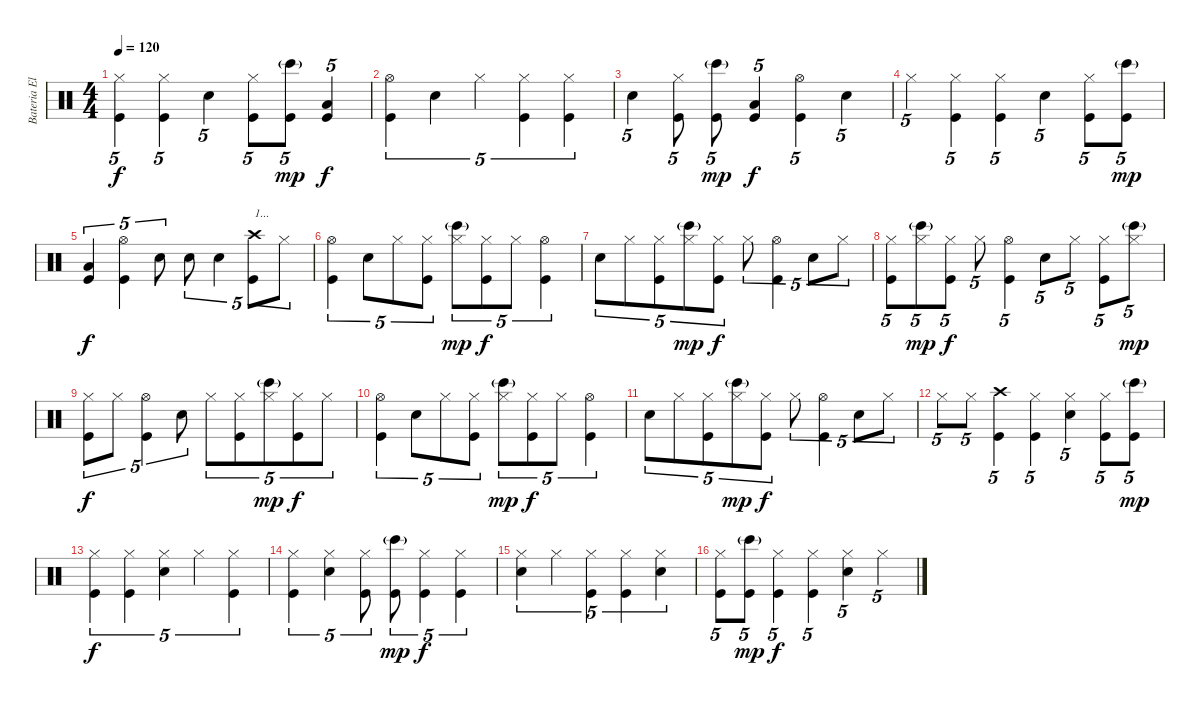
\track ("Bateria Eletrônica" "Bateria El") {instrument percussion}
\staff {score}
\articulation defaults
\ts (4 4)
\tempo 120
\clef neutral
\ks c
("Kick (hit)" "Hi-Hat (closed)").4{tu (5 4) dy f} ("Kick (hit)" "Hi-Hat (closed)").4{tu (5 4)} "Snare (hit) 2".4{tu (5 4)} ("Kick (hit)" "Hi-Hat (closed)").8{tu (5 4)} ("Kick (hit)" "Bongo High (hit)"{g}).8{tu (5 4) dy mp} ("Kick (hit)" "Low Tom (hit)").4{tu (5 4) dy f} |
("Kick (hit)" "Hi-Hat (open)").4{tu (5 4)} "Snare (hit) 2".4{tu (5 4)} "Hi-Hat (closed)".4{tu (5 4)} ("Kick (hit)" "Hi-Hat (closed)").4{tu (5 4)} ("Kick (hit)" "Hi-Hat (closed)").4{tu (5 4)} |
"Snare (hit) 2".4{tu (5 4)} ("Kick (hit)" "Hi-Hat (closed)").8{tu (5 4)} ("Kick (hit)" "Bongo High (hit)"{g}).8{tu (5 4) dy mp} ("Kick (hit)" "Low Tom (hit)").4{tu (5 4) dy f} ("Kick (hit)" "Hi-Hat (open)").4{tu (5 4)} "Snare (hit) 2".4{tu (5 4)} |
"Hi-Hat (closed)".4{tu (5 4)} ("Kick (hit)" "Hi-Hat (closed)").4{tu (5 4)} ("Kick (hit)" "Hi-Hat (closed)").4{tu (5 4)} "Snare (hit) 2".4{tu (5 4)} ("Kick (hit)" "Hi-Hat (closed)").8{tu (5 4)} ("Kick (hit)" "Bongo High (hit)"{g}).8{tu (5 4) dy mp} |
("Kick (hit)" "Low Tom (hit)").4{tu (5 4) dy f} ("Kick (hit)" "Hi-Hat (open)").4{tu (5 4)} "Snare (hit) 2".8{tu (5 4)} "Snare (hit) 2".8{tu (5 4)} "Snare (hit) 2".4{tu (5 4)} ("Kick (hit)" "Crash high (hit)").8{tu (5 4) txt "1..."} "Hi-Hat (closed)".8{tu (5 4)} |
("Kick (hit)" "Hi-Hat (open)").4{tu (5 4)} "Snare (hit) 2".8{tu (5 4)} "Hi-Hat (closed)".8{tu (5 4)} ("Kick (hit)" "Hi-Hat (closed)").8{tu (5 4)} ("Bongo High (hit)"{g} "Hi-Hat (closed)").8{tu (5 4) dy mp} ("Kick (hit)" "Hi-Hat (closed)").8{tu (5 4) dy f} "Hi-Hat (closed)".8{tu (5 4)} ("Kick (hit)" "Hi-Hat (open)").4{tu (5 4)} |
"Snare (hit) 2".8{tu (5 4)} "Hi-Hat (closed)".8{tu (5 4)} ("Kick (hit)" "Hi-Hat (closed)").8{tu (5 4)} ("Bongo High (hit)"{g} "Hi-Hat (closed)").8{tu (5 4) dy mp} ("Kick (hit)" "Hi-Hat (closed)").8{tu (5 4) dy f} "Hi-Hat (closed)".8{tu (5 4)} ("Kick (hit)" "Hi-Hat (open)").4{tu (5 4)} "Snare (hit) 2".8{tu (5 4)} "Hi-Hat (closed)".8{tu (5 4)} |
("Kick (hit)" "Hi-Hat (closed)").8{tu (5 4)} ("Bongo High (hit)"{g} "Hi-Hat (closed)").8{tu (5 4) dy mp} ("Kick (hit)" "Hi-Hat (closed)").8{tu (5 4) dy f} "Hi-Hat (closed)".8{tu (5 4)} ("Kick (hit)" "Hi-Hat (open)").4{tu (5 4)} "Snare (hit) 2".8{tu (5 4)} "Hi-Hat (closed)".8{tu (5 4)} ("Kick (hit)" "Hi-Hat (closed)").8{tu (5 4)} ("Bongo High (hit)"{g} "Hi-Hat (closed)").8{tu (5 4) dy mp} |
("Kick (hit)" "Hi-Hat (closed)").8{tu (5 4) dy f} "Hi-Hat (closed)".8{tu (5 4)} ("Kick (hit)" "Hi-Hat (open)").4{tu (5 4)} "Snare (hit) 2".8{tu (5 4)} "Hi-Hat (closed)".8{tu (5 4)} ("Kick (hit)" "Hi-Hat (closed)").8{tu (5 4)} ("Bongo High (hit)"{g} "Hi-Hat (closed)").8{tu (5 4) dy mp} ("Kick (hit)" "Hi-Hat (closed)").8{tu (5 4) dy f} "Hi-Hat (closed)".8{tu (5 4)} |
("Kick (hit)" "Hi-Hat (open)").4{tu (5 4)} "Snare (hit) 2".8{tu (5 4)} "Hi-Hat (closed)".8{tu (5 4)} ("Kick (hit)" "Hi-Hat (closed)").8{tu (5 4)} ("Bongo High (hit)"{g} "Hi-Hat (closed)").8{tu (5 4) dy mp} ("Kick (hit)" "Hi-Hat (closed)").8{tu (5 4) dy f} "Hi-Hat (closed)".8{tu (5 4)} ("Kick (hit)" "Hi-Hat (open)").4{tu (5 4)} |
"Snare (hit) 2".8{tu (5 4)} "Hi-Hat (closed)".8{tu (5 4)} ("Kick (hit)" "Hi-Hat (closed)").8{tu (5 4)} ("Bongo High (hit)"{g} "Hi-Hat (closed)").8{tu (5 4) dy mp} ("Kick (hit)" "Hi-Hat (closed)").8{tu (5 4) dy f} "Hi-Hat (closed)".8{tu (5 4)} ("Kick (hit)" "Hi-Hat (open)").4{tu (5 4)} "Snare (hit) 2".8{tu (5 4)} "Hi-Hat (closed)".8{tu (5 4)} |
"Hi-Hat (closed)".8{tu (5 4)} "Hi-Hat (closed)".8{tu (5 4)} ("Kick (hit)" "Crash high (hit)").4{tu (5 4)} ("Kick (hit)" "Hi-Hat (closed)").4{tu (5 4)} ("Snare (hit) 2" "Hi-Hat (closed)").4{tu (5 4)} ("Kick (hit)" "Hi-Hat (closed)").8{tu (5 4)} ("Kick (hit)" "Bongo High (hit)"{g}).8{tu (5 4) dy mp} |
("Kick (hit)" "Hi-Hat (closed)").4{tu (5 4) dy f} ("Kick (hit)" "Hi-Hat (closed)").4{tu (5 4)} ("Snare (hit) 2" "Hi-Hat (closed)").4{tu (5 4)} "Hi-Hat (closed)".4{tu (5 4)} ("Kick (hit)" "Hi-Hat (closed)").4{tu (5 4)} |
("Kick (hit)" "Hi-Hat (closed)").4{tu (5 4)} ("Snare (hit) 2" "Hi-Hat (closed)").4{tu (5 4)} ("Kick (hit)" "Hi-Hat (closed)").8{tu (5 4)} ("Kick (hit)" "Bongo High (hit)"{g}).8{tu (5 4) dy mp} ("Kick (hit)" "Hi-Hat (closed)").4{tu (5 4) dy f} ("Kick (hit)" "Hi-Hat (closed)").4{tu (5 4)} |
("Snare (hit) 2" "Hi-Hat (closed)").4{tu (5 4)} "Hi-Hat (closed)".4{tu (5 4)} ("Kick (hit)" "Hi-Hat (closed)").4{tu (5 4)} ("Kick (hit)" "Hi-Hat (closed)").4{tu (5 4)} ("Snare (hit) 2" "Hi-Hat (closed)").4{tu (5 4)} |
("Kick (hit)" "Hi-Hat (closed)").8{tu (5 4)} ("Kick (hit)" "Bongo High (hit)"{g}).8{tu (5 4) dy mp} ("Kick (hit)" "Hi-Hat (closed)").4{tu (5 4) dy f} ("Kick (hit)" "Hi-Hat (closed)").4{tu (5 4)} ("Snare (hit) 2" "Hi-Hat (closed)").4{tu (5 4)} "Hi-Hat (closed)".4{tu (5 4)}
